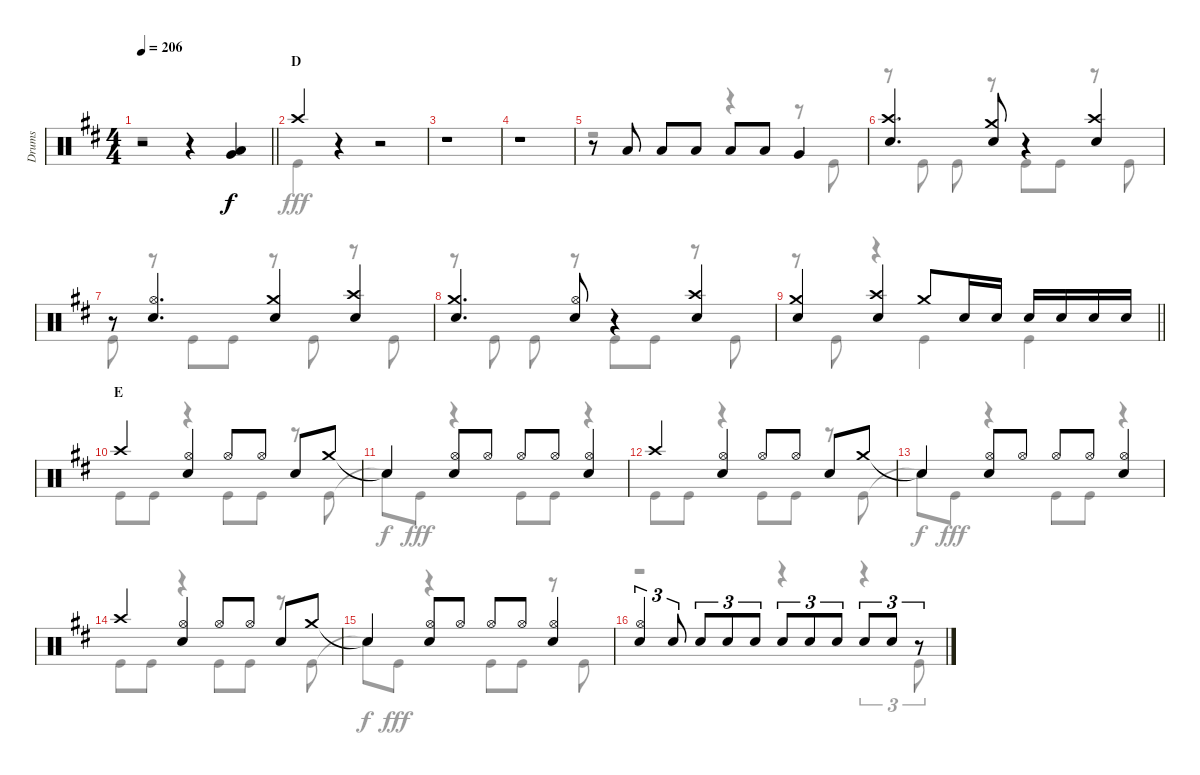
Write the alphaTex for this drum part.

\track ("Drums" "Drums") {instrument percussion}
\staff {score}
\articulation defaults
\voice
\ts (4 4)
\tempo 206
\clef neutral
\barLineRight lightlight
\ks d
r.2{dy f} r.4 ("Low Tom (hit)" "Very Low Tom (hit)").4 |
\section ("" "D")
"Crash high (hit)".4 r.4 r.2 |
r.1 |
r.1 |
r.8 "Low Tom (hit)".8 "Low Tom (hit)".8 "Low Tom (hit)".8 "Low Tom (hit)".8 "Low Tom (hit)".8 "Very Low Tom (hit)".4 |
("Crash high (hit)" "Snare (hit) 2").4{d} ("Crash medium (hit)" "Snare (hit) 2").8 r.4 ("Crash high (hit)" "Snare (hit) 2").4 |
r.8 ("Hi-Hat (open)" "Snare (hit) 2").4{d} ("Crash medium (hit)" "Snare (hit) 2").4 ("Crash high (hit)" "Snare (hit) 2").4 |
("Crash medium (hit)" "Snare (hit) 2").4{d} ("Hi-Hat (open)" "Snare (hit) 2").8 r.4 ("Crash high (hit)" "Snare (hit) 2").4 |
\barLineRight lightlight
("Crash medium (hit)" "Snare (hit) 2").4 ("Crash high (hit)" "Snare (hit) 2").4 "Crash medium (hit)".8 "Snare (hit) 2".16 "Snare (hit) 2".16 "Snare (hit) 2".16 "Snare (hit) 2".16 "Snare (hit) 2".16 "Snare (hit) 2".16 |
\section ("" "E")
"Crash high (hit)".4 ("Hi-Hat (open)" "Snare (hit) 2").4 "Hi-Hat (open)".8 "Hi-Hat (open)".8 "Snare (hit) 2".8 "Crash medium (hit)".8 |
"Snare (hit)"{t}.4 ("Hi-Hat (open)" "Snare (hit) 2").8 "Hi-Hat (open)".8 "Hi-Hat (open)".8 "Hi-Hat (open)".8 ("Hi-Hat (open)" "Snare (hit) 2").4 |
"Crash high (hit)".4 ("Hi-Hat (open)" "Snare (hit) 2").4 "Hi-Hat (open)".8 "Hi-Hat (open)".8 "Snare (hit) 2".8 "Crash medium (hit)".8 |
"Snare (hit)"{t}.4 ("Hi-Hat (open)" "Snare (hit) 2").8 "Hi-Hat (open)".8 "Hi-Hat (open)".8 "Hi-Hat (open)".8 ("Hi-Hat (open)" "Snare (hit) 2").4 |
"Crash high (hit)".4 ("Hi-Hat (open)" "Snare (hit) 2").4 "Hi-Hat (open)".8 "Hi-Hat (open)".8 "Snare (hit) 2".8 "Crash medium (hit)".8 |
"Snare (hit)"{t}.4 ("Hi-Hat (open)" "Snare (hit) 2").8 "Hi-Hat (open)".8 "Hi-Hat (open)".8 "Hi-Hat (open)".8 ("Hi-Hat (open)" "Snare (hit) 2").4 |
("Hi-Hat (open)" "Snare (hit) 2").4{tu (3 2)} "Snare (hit) 2".8{tu (3 2)} "Snare (hit) 2".8{tu (3 2)} "Snare (hit) 2".8{tu (3 2)} "Snare (hit) 2".8{tu (3 2)} "Snare (hit) 2".8{tu (3 2)} "Snare (hit) 2".8{tu (3 2)} "Snare (hit) 2".8{tu (3 2)} "Snare (hit) 2".8{tu (3 2)} "Snare (hit) 2".8{tu (3 2)} r.8{tu (3 2)}
\voice
\clef neutral
\ottava regular
\simile none
\barLineRight lightlight
\ks d
r.1{dy fff} |
"Kick (hit)".4 r.4 r.2 |
r.1 |
r.1 |
r.2 r.4 r.8 "Kick (hit)".8 |
r.8 "Kick (hit)".8 "Kick (hit)".8 r.8 "Kick (hit)".8 "Kick (hit)".8 r.8 "Kick (hit)".8 |
"Kick (hit)".8 r.8 "Kick (hit)".8 "Kick (hit)".8 r.8 "Kick (hit)".8 r.8 "Kick (hit)".8 |
r.8 "Kick (hit)".8 "Kick (hit)".8 r.8 "Kick (hit)".8 "Kick (hit)".8 r.8 "Kick (hit)".8 |
\barLineRight lightlight
r.8 "Kick (hit)".8 r.4 "Kick (hit)".4 "Kick (hit)".4 |
"Kick (hit)".8 "Kick (hit)".8 r.4 "Kick (hit)".8 "Kick (hit)".8 r.8 "Kick (hit)".8 |
"Snare (hit)"{t}.8{dy f} "Kick (hit)".8{dy fff} r.4 "Kick (hit)".8 "Kick (hit)".8 r.4 |
"Kick (hit)".8 "Kick (hit)".8 r.4 "Kick (hit)".8 "Kick (hit)".8 r.8 "Kick (hit)".8 |
"Snare (hit)"{t}.8{dy f} "Kick (hit)".8{dy fff} r.4 "Kick (hit)".8 "Kick (hit)".8 r.4 |
"Kick (hit)".8 "Kick (hit)".8 r.4 "Kick (hit)".8 "Kick (hit)".8 r.8 "Kick (hit)".8 |
"Snare (hit)"{t}.8{dy f} "Kick (hit)".8{dy fff} r.4 "Kick (hit)".8 "Kick (hit)".8 r.8 "Kick (hit)".8 |
r.2 r.4 r.4{tu (3 2)} "Kick (hit)".8{tu (3 2)}
